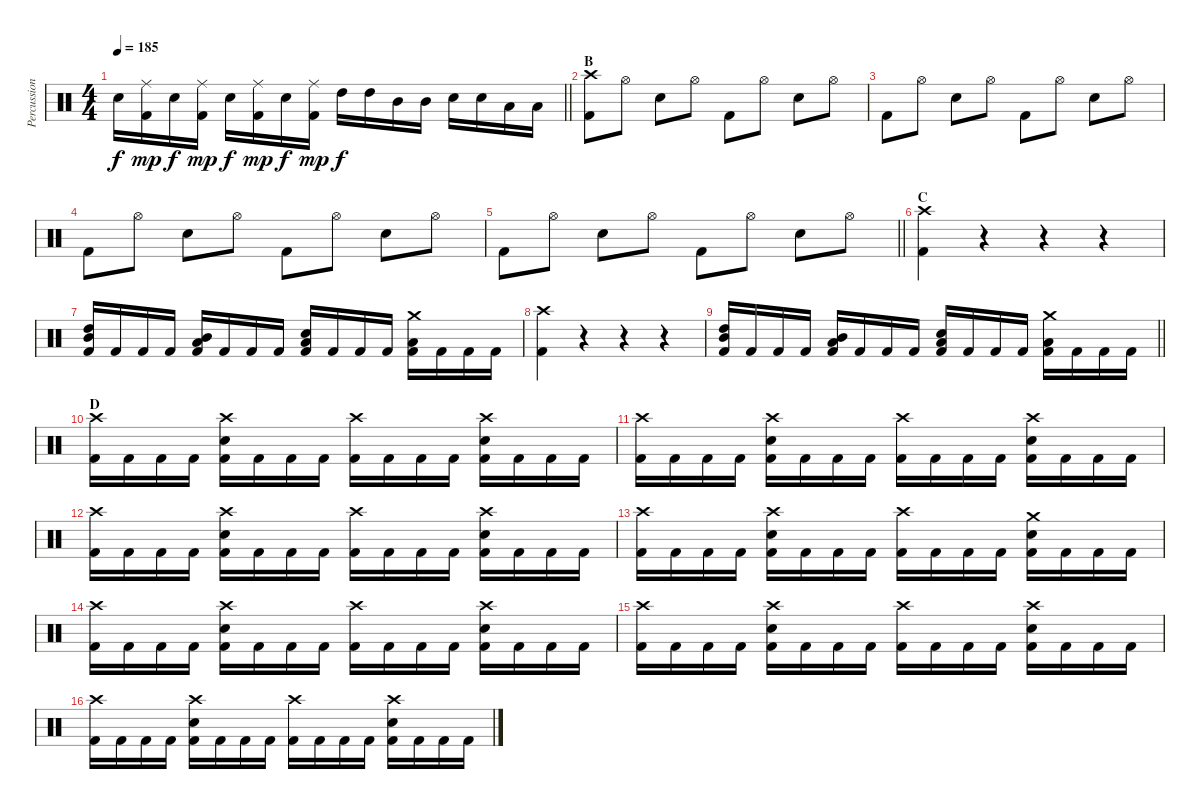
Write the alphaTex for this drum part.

\track ("Percussion" "Percussion") {instrument percussion}
\staff {score}
\articulation defaults
\ts (4 4)
\tempo 185
\clef neutral
\barLineRight lightlight
\ks c "Snare (hit) 2".16{dy f}
("Ride (middle)" "Kick (hit) 2").16{dy mp} "Snare (hit) 2".16{dy f} ("Ride (middle)" "Kick (hit) 2").16{dy mp} "Snare (hit) 2".16{dy f} ("Ride (middle)" "Kick (hit) 2").16{dy mp} "Snare (hit) 2".16{dy f} ("Ride (middle)" "Kick (hit) 2").16{dy mp} "High Tom (hit)".16{dy f} "High Tom (hit)".16 "Mid Tom (hit)".16 "Mid Tom (hit)".16 "Snare (hit) 2".16 "Snare (hit) 2".16 "Low Tom (hit)".16 "Low Tom (hit)".16 |
\section ("" "B")
("Crash high (hit)" "Kick (hit) 2").8 "Hi-Hat (open)".8 "Snare (hit) 2".8 "Hi-Hat (open)".8 "Kick (hit) 2".8 "Hi-Hat (open)".8 "Snare (hit) 2".8 "Hi-Hat (open)".8 |
"Kick (hit) 2".8 "Hi-Hat (open)".8 "Snare (hit) 2".8 "Hi-Hat (open)".8 "Kick (hit) 2".8 "Hi-Hat (open)".8 "Snare (hit) 2".8 "Hi-Hat (open)".8 |
"Kick (hit) 2".8 "Hi-Hat (open)".8 "Snare (hit) 2".8 "Hi-Hat (open)".8 "Kick (hit) 2".8 "Hi-Hat (open)".8 "Snare (hit) 2".8 "Hi-Hat (open)".8 |
\barLineRight lightlight "Kick (hit) 2".8 "Hi-Hat (open)".8 "Snare (hit) 2".8 "Hi-Hat (open)".8 "Kick (hit) 2".8 "Hi-Hat (open)".8 "Snare (hit) 2".8 "Hi-Hat (open)".8
|
\section ("" "C")
("Crash high (hit)" "Kick (hit) 2").4 r.4 r.4 r.4 |
("High Tom (hit)" "Mid Tom (hit)" "Kick (hit) 2").16 "Kick (hit) 2".16 "Kick (hit) 2".16 "Kick (hit) 2".16 ("Mid Tom (hit)" "Low Tom (hit)" "Kick (hit) 2").16 "Kick (hit) 2".16 "Kick (hit) 2".16 "Kick (hit) 2".16 ("Low Tom (hit)" "Snare (hit) 2" "Kick (hit) 2").16 "Kick (hit) 2".16 "Kick (hit) 2".16 "Kick (hit) 2".16 ("Crash medium (hit)" "Low Tom (hit)" "Kick (hit) 2").16 "Kick (hit) 2".16 "Kick (hit) 2".16 "Kick (hit) 2".16 |
("Crash high (hit)" "Kick (hit) 2").4 r.4 r.4 r.4 |
\barLineRight lightlight
("High Tom (hit)" "Mid Tom (hit)" "Kick (hit) 2").16 "Kick (hit) 2".16 "Kick (hit) 2".16 "Kick (hit) 2".16 ("Mid Tom (hit)" "Low Tom (hit)" "Kick (hit) 2").16 "Kick (hit) 2".16 "Kick (hit) 2".16 "Kick (hit) 2".16 ("Low Tom (hit)" "Snare (hit) 2" "Kick (hit) 2").16 "Kick (hit) 2".16 "Kick (hit) 2".16 "Kick (hit) 2".16 ("Crash medium (hit)" "Low Tom (hit)" "Kick (hit) 2").16 "Kick (hit) 2".16 "Kick (hit) 2".16 "Kick (hit) 2".16 |
\section ("" "D")
("Crash high (hit)" "Kick (hit) 2").16 "Kick (hit) 2".16 "Kick (hit) 2".16 "Kick (hit) 2".16 ("Crash high (hit)" "Snare (hit) 2" "Kick (hit) 2").16 "Kick (hit) 2".16 "Kick (hit) 2".16 "Kick (hit) 2".16 ("Crash high (hit)" "Kick (hit) 2").16 "Kick (hit) 2".16 "Kick (hit) 2".16 "Kick (hit) 2".16 ("Crash high (hit)" "Snare (hit) 2" "Kick (hit) 2").16 "Kick (hit) 2".16 "Kick (hit) 2".16 "Kick (hit) 2".16 |
("Crash high (hit)" "Kick (hit) 2").16 "Kick (hit) 2".16 "Kick (hit) 2".16 "Kick (hit) 2".16 ("Crash high (hit)" "Snare (hit) 2" "Kick (hit) 2").16 "Kick (hit) 2".16 "Kick (hit) 2".16 "Kick (hit) 2".16 ("Crash high (hit)" "Kick (hit) 2").16 "Kick (hit) 2".16 "Kick (hit) 2".16 "Kick (hit) 2".16 ("Crash high (hit)" "Snare (hit) 2" "Kick (hit) 2").16 "Kick (hit) 2".16 "Kick (hit) 2".16 "Kick (hit) 2".16 |
("Crash high (hit)" "Kick (hit) 2").16 "Kick (hit) 2".16 "Kick (hit) 2".16 "Kick (hit) 2".16 ("Crash high (hit)" "Snare (hit) 2" "Kick (hit) 2").16 "Kick (hit) 2".16 "Kick (hit) 2".16 "Kick (hit) 2".16 ("Crash high (hit)" "Kick (hit) 2").16 "Kick (hit) 2".16 "Kick (hit) 2".16 "Kick (hit) 2".16 ("Crash high (hit)" "Snare (hit) 2" "Kick (hit) 2").16 "Kick (hit) 2".16 "Kick (hit) 2".16 "Kick (hit) 2".16 |
("Crash high (hit)" "Kick (hit) 2").16 "Kick (hit) 2".16 "Kick (hit) 2".16 "Kick (hit) 2".16 ("Crash high (hit)" "Snare (hit) 2" "Kick (hit) 2").16 "Kick (hit) 2".16 "Kick (hit) 2".16 "Kick (hit) 2".16 ("Crash high (hit)" "Kick (hit) 2").16 "Kick (hit) 2".16 "Kick (hit) 2".16 "Kick (hit) 2".16 ("Crash medium (hit)" "Snare (hit) 2" "Kick (hit) 2").16 "Kick (hit) 2".16 "Kick (hit) 2".16 "Kick (hit) 2".16 |
("Crash high (hit)" "Kick (hit) 2").16 "Kick (hit) 2".16 "Kick (hit) 2".16 "Kick (hit) 2".16 ("Crash high (hit)" "Snare (hit) 2" "Kick (hit) 2").16 "Kick (hit) 2".16 "Kick (hit) 2".16 "Kick (hit) 2".16 ("Crash high (hit)" "Kick (hit) 2").16 "Kick (hit) 2".16 "Kick (hit) 2".16 "Kick (hit) 2".16 ("Crash high (hit)" "Snare (hit) 2" "Kick (hit) 2").16 "Kick (hit) 2".16 "Kick (hit) 2".16 "Kick (hit) 2".16 |
("Crash high (hit)" "Kick (hit) 2").16 "Kick (hit) 2".16 "Kick (hit) 2".16 "Kick (hit) 2".16 ("Crash high (hit)" "Snare (hit) 2" "Kick (hit) 2").16 "Kick (hit) 2".16 "Kick (hit) 2".16 "Kick (hit) 2".16 ("Crash high (hit)" "Kick (hit) 2").16 "Kick (hit) 2".16 "Kick (hit) 2".16 "Kick (hit) 2".16 ("Crash high (hit)" "Snare (hit) 2" "Kick (hit) 2").16 "Kick (hit) 2".16 "Kick (hit) 2".16 "Kick (hit) 2".16 |
("Crash high (hit)" "Kick (hit) 2").16 "Kick (hit) 2".16 "Kick (hit) 2".16 "Kick (hit) 2".16 ("Crash high (hit)" "Snare (hit) 2" "Kick (hit) 2").16 "Kick (hit) 2".16 "Kick (hit) 2".16 "Kick (hit) 2".16 ("Crash high (hit)" "Kick (hit) 2").16 "Kick (hit) 2".16 "Kick (hit) 2".16 "Kick (hit) 2".16 ("Crash high (hit)" "Snare (hit) 2" "Kick (hit) 2").16 "Kick (hit) 2".16 "Kick (hit) 2".16 "Kick (hit) 2".16
